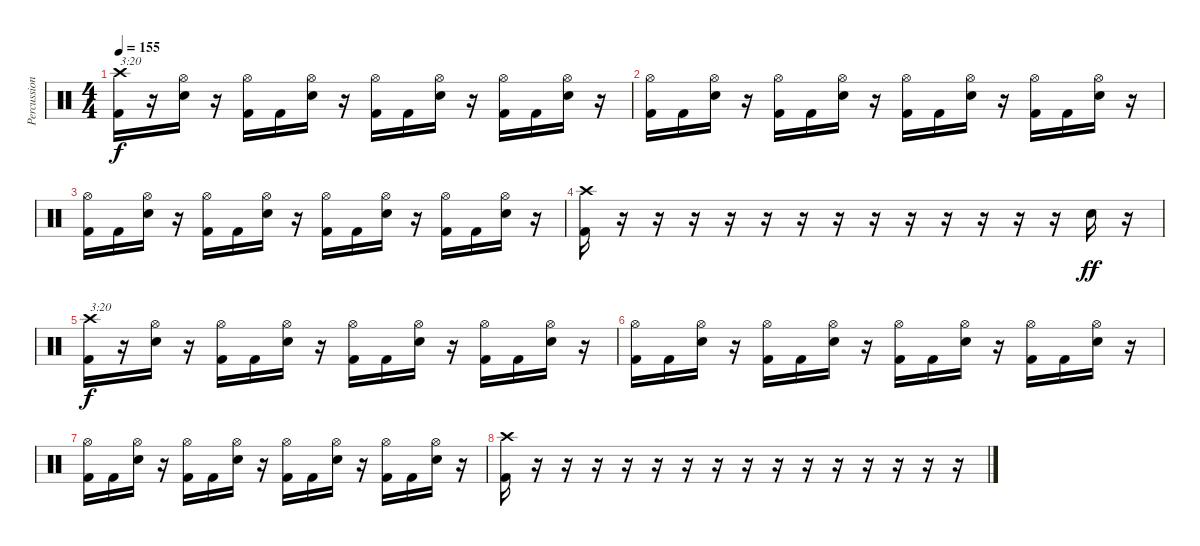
\track ("Percussion" "Percussion") {instrument percussion}
\staff {score}
\articulation defaults
\ts (4 4)
\tempo 155
\clef neutral
\ks c
("Crash high (hit)" "Kick (hit) 2").16{txt "3:20" dy f} r.16 ("Hi-Hat (open)" "Snare (hit) 2").16 r.16 ("Hi-Hat (open)" "Kick (hit) 2").16 "Kick (hit) 2".16 ("Hi-Hat (open)" "Snare (hit) 2").16 r.16 ("Hi-Hat (open)" "Kick (hit) 2").16 "Kick (hit) 2".16 ("Hi-Hat (open)" "Snare (hit) 2").16 r.16 ("Hi-Hat (open)" "Kick (hit) 2").16 "Kick (hit) 2".16 ("Hi-Hat (open)" "Snare (hit) 2").16 r.16 |
("Hi-Hat (open)" "Kick (hit) 2").16 "Kick (hit) 2".16 ("Hi-Hat (open)" "Snare (hit) 2").16 r.16 ("Hi-Hat (open)" "Kick (hit) 2").16 "Kick (hit) 2".16 ("Hi-Hat (open)" "Snare (hit) 2").16 r.16 ("Hi-Hat (open)" "Kick (hit) 2").16 "Kick (hit) 2".16 ("Hi-Hat (open)" "Snare (hit) 2").16 r.16 ("Hi-Hat (open)" "Kick (hit) 2").16 "Kick (hit) 2".16 ("Hi-Hat (open)" "Snare (hit) 2").16 r.16 |
("Hi-Hat (open)" "Kick (hit) 2").16 "Kick (hit) 2".16 ("Hi-Hat (open)" "Snare (hit) 2").16 r.16 ("Hi-Hat (open)" "Kick (hit) 2").16 "Kick (hit) 2".16 ("Hi-Hat (open)" "Snare (hit) 2").16 r.16 ("Hi-Hat (open)" "Kick (hit) 2").16 "Kick (hit) 2".16 ("Hi-Hat (open)" "Snare (hit) 2").16 r.16 ("Hi-Hat (open)" "Kick (hit) 2").16 "Kick (hit) 2".16 ("Hi-Hat (open)" "Snare (hit) 2").16 r.16 |
("Crash high (hit)" "Kick (hit) 2").16 r.16 r.16 r.16 r.16 r.16 r.16 r.16 r.16 r.16 r.16 r.16 r.16 r.16 "Snare (hit) 2".16{dy ff} r.16 |
("Crash high (hit)" "Kick (hit) 2").16{txt "3:20" dy f} r.16 ("Hi-Hat (open)" "Snare (hit) 2").16 r.16 ("Hi-Hat (open)" "Kick (hit) 2").16 "Kick (hit) 2".16 ("Hi-Hat (open)" "Snare (hit) 2").16 r.16 ("Hi-Hat (open)" "Kick (hit) 2").16 "Kick (hit) 2".16 ("Hi-Hat (open)" "Snare (hit) 2").16 r.16 ("Hi-Hat (open)" "Kick (hit) 2").16 "Kick (hit) 2".16 ("Hi-Hat (open)" "Snare (hit) 2").16 r.16 |
("Hi-Hat (open)" "Kick (hit) 2").16 "Kick (hit) 2".16 ("Hi-Hat (open)" "Snare (hit) 2").16 r.16 ("Hi-Hat (open)" "Kick (hit) 2").16 "Kick (hit) 2".16 ("Hi-Hat (open)" "Snare (hit) 2").16 r.16 ("Hi-Hat (open)" "Kick (hit) 2").16 "Kick (hit) 2".16 ("Hi-Hat (open)" "Snare (hit) 2").16 r.16 ("Hi-Hat (open)" "Kick (hit) 2").16 "Kick (hit) 2".16 ("Hi-Hat (open)" "Snare (hit) 2").16 r.16 |
("Hi-Hat (open)" "Kick (hit) 2").16 "Kick (hit) 2".16 ("Hi-Hat (open)" "Snare (hit) 2").16 r.16 ("Hi-Hat (open)" "Kick (hit) 2").16 "Kick (hit) 2".16 ("Hi-Hat (open)" "Snare (hit) 2").16 r.16 ("Hi-Hat (open)" "Kick (hit) 2").16 "Kick (hit) 2".16 ("Hi-Hat (open)" "Snare (hit) 2").16 r.16 ("Hi-Hat (open)" "Kick (hit) 2").16 "Kick (hit) 2".16 ("Hi-Hat (open)" "Snare (hit) 2").16 r.16 |
("Crash high (hit)" "Kick (hit) 2").16 r.16 r.16 r.16 r.16 r.16 r.16 r.16 r.16 r.16 r.16 r.16 r.16 r.16 r.16 r.16
